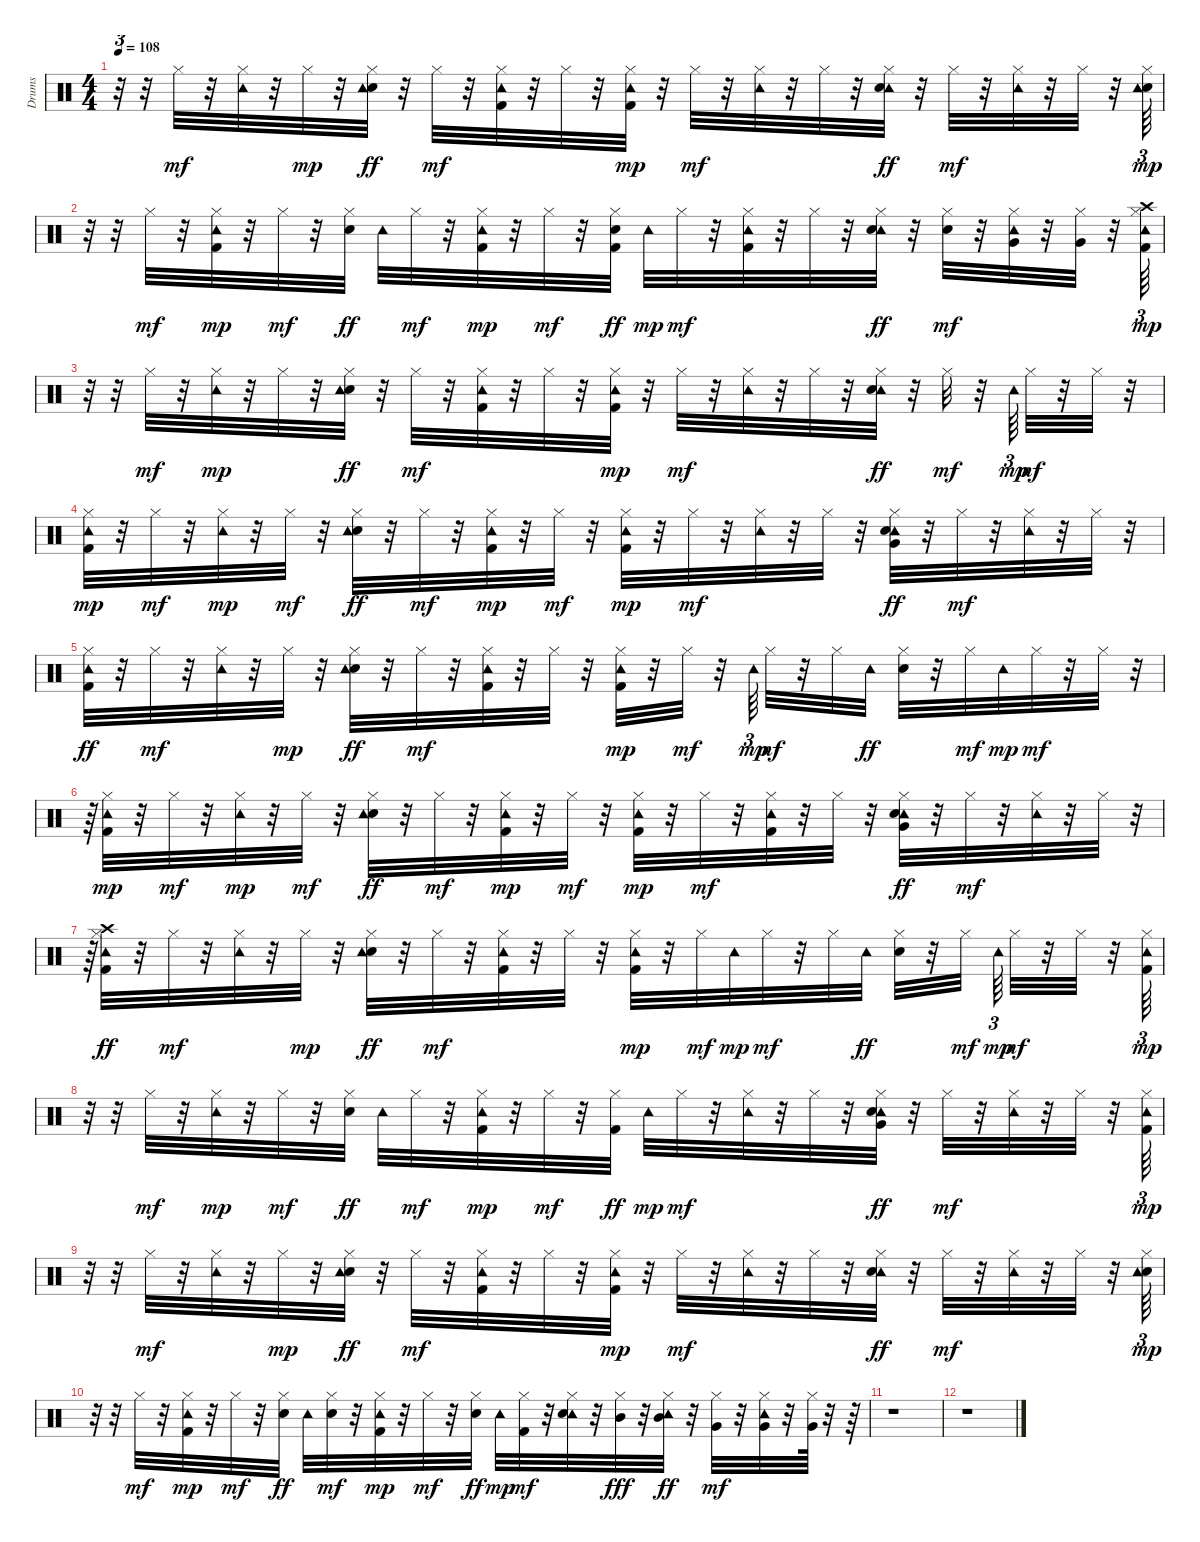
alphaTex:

\track ("Drums               " "Drums     ") {instrument percussion}
\staff {score}
\articulation defaults
\ts (4 4)
\tempo 108
\clef neutral
\ks c
r.32{tu (3 2) dy mp} r.32 "Hi-Hat (closed)".32{dy mf} r.32 ("Tambourine (hit)" "Hi-Hat (closed)").32 r.32 "Hi-Hat (closed)".32{dy mp} r.32 ("Snare (hit) 2" "Hi-Hat (closed)" "Tambourine (hit)").32{dy ff} r.32 "Hi-Hat (closed)".32{dy mf} r.32 ("Tambourine (hit)" "Kick (hit) 2" "Hi-Hat (closed)").32 r.32 "Hi-Hat (closed)".32 r.32 ("Kick (hit) 2" "Hi-Hat (closed)" "Tambourine (hit)").32{dy mp} r.32 "Hi-Hat (closed)".32{dy mf} r.32 ("Tambourine (hit)" "Hi-Hat (closed)").32 r.32 "Hi-Hat (closed)".32 r.32 ("Tambourine (hit)" "Snare (hit) 2" "Hi-Hat (closed)").32{dy ff} r.32 "Hi-Hat (closed)".32{dy mf} r.32 ("Tambourine (hit)" "Hi-Hat (closed)").32 r.32 "Hi-Hat (closed)".32 r.32 ("Hi-Hat (closed)" "Snare (hit) 2" "Tambourine (hit)").64{tu (3 2) dy mp} |
r.32{tu (3 2)} r.32 "Hi-Hat (closed)".32{dy mf} r.32 ("Kick (hit) 2" "Hi-Hat (closed)" "Tambourine (hit)").32{dy mp} r.32 "Hi-Hat (closed)".32{dy mf} r.32 ("Snare (hit) 2" "Hi-Hat (closed)").32{dy ff} "Tambourine (hit)".32 "Hi-Hat (closed)".32{dy mf} r.32 ("Kick (hit) 2" "Hi-Hat (closed)" "Tambourine (hit)").32{dy mp} r.32 "Hi-Hat (closed)".32{dy mf} r.32 ("Kick (hit) 2" "Snare (hit) 2" "Hi-Hat (closed)").32{dy ff} "Tambourine (hit)".32{dy mp} "Hi-Hat (closed)".32{dy mf} r.32 ("Tambourine (hit)" "Kick (hit) 2" "Hi-Hat (closed)").32 r.32 "Hi-Hat (closed)".32 r.32 ("Tambourine (hit)" "Snare (hit) 2" "Hi-Hat (closed)").32{dy ff} r.32 ("Snare (hit) 2" "Hi-Hat (closed)").32{dy mf} r.32 ("Tambourine (hit)" "Very Low Tom (hit)" "Hi-Hat (closed)").32 r.32 ("Very Low Tom (hit)" "Hi-Hat (closed)").32 r.32 ("Kick (hit) 2" "Hi-Hat (closed)" "Crash high (hit)" "Tambourine (hit)").64{tu (3 2) dy mp} |
r.32{tu (3 2)} r.32 "Hi-Hat (closed)".32{dy mf} r.32 ("Hi-Hat (closed)" "Tambourine (hit)").32{dy mp} r.32 "Hi-Hat (closed)".32 r.32 ("Snare (hit) 2" "Hi-Hat (closed)" "Tambourine (hit)").32{dy ff} r.32 "Hi-Hat (closed)".32{dy mf} r.32 ("Tambourine (hit)" "Kick (hit) 2" "Hi-Hat (closed)").32 r.32 "Hi-Hat (closed)".32 r.32 ("Kick (hit) 2" "Hi-Hat (closed)" "Tambourine (hit)").32{dy mp} r.32 "Hi-Hat (closed)".32{dy mf} r.32 ("Tambourine (hit)" "Hi-Hat (closed)").32 r.32 "Hi-Hat (closed)".32 r.32 ("Tambourine (hit)" "Snare (hit) 2" "Hi-Hat (closed)").32{dy ff} r.32 "Hi-Hat (closed)".32{dy mf} r.32 "Tambourine (hit)".64{tu (3 2) dy mp} "Hi-Hat (closed)".32{dy mf} r.32 "Hi-Hat (closed)".32 r.32 |
("Kick (hit) 2" "Hi-Hat (closed)" "Tambourine (hit)").32{dy mp} r.32 "Hi-Hat (closed)".32{dy mf} r.32 ("Hi-Hat (closed)" "Tambourine (hit)").32{dy mp} r.32 "Hi-Hat (closed)".32{dy mf} r.32 ("Snare (hit) 2" "Hi-Hat (closed)" "Tambourine (hit)").32{dy ff} r.32 "Hi-Hat (closed)".32{dy mf} r.32 ("Kick (hit) 2" "Hi-Hat (closed)" "Tambourine (hit)").32{dy mp} r.32 "Hi-Hat (closed)".32{dy mf} r.32 ("Hi-Hat (closed)" "Kick (hit) 2" "Tambourine (hit)").32{dy mp} r.32 "Hi-Hat (closed)".32{dy mf} r.32 ("Tambourine (hit)" "Hi-Hat (closed)").32 r.32 "Hi-Hat (closed)".32 r.32 ("Tambourine (hit)" "Snare (hit) 2" "Very Low Tom (hit)" "Hi-Hat (closed)").32{dy ff} r.32 "Hi-Hat (closed)".32{dy mf} r.32 ("Tambourine (hit)" "Hi-Hat (closed)").32 r.32 "Hi-Hat (closed)".32 r.32 |
("Kick (hit) 2" "Tambourine (hit)" "Hi-Hat (closed)").32{dy ff} r.32 "Hi-Hat (closed)".32{dy mf} r.32 ("Tambourine (hit)" "Hi-Hat (closed)").32 r.32 "Hi-Hat (closed)".32{dy mp} r.32 ("Snare (hit) 2" "Hi-Hat (closed)" "Tambourine (hit)").32{dy ff} r.32 "Hi-Hat (closed)".32{dy mf} r.32 ("Tambourine (hit)" "Kick (hit) 2" "Hi-Hat (closed)").32 r.32 "Hi-Hat (closed)".32 r.32 ("Kick (hit) 2" "Hi-Hat (closed)" "Tambourine (hit)").32{dy mp} r.32 "Hi-Hat (closed)".32{dy mf} r.32 "Tambourine (hit)".64{tu (3 2) dy mp} "Hi-Hat (closed)".32{dy mf} r.32 "Hi-Hat (closed)".32 "Tambourine (hit)".32{dy ff} ("Snare (hit) 2" "Hi-Hat (closed)").32 r.32 "Hi-Hat (closed)".32{dy mf} "Tambourine (hit)".32{dy mp} "Hi-Hat (closed)".32{dy mf} r.32 "Hi-Hat (closed)".32 r.32{tu (3 2)} |
r.64{tu (3 2)} ("Kick (hit) 2" "Hi-Hat (closed)" "Tambourine (hit)").32{dy mp} r.32 "Hi-Hat (closed)".32{dy mf} r.32 ("Hi-Hat (closed)" "Tambourine (hit)").32{dy mp} r.32 "Hi-Hat (closed)".32{dy mf} r.32 ("Snare (hit) 2" "Hi-Hat (closed)" "Tambourine (hit)").32{dy ff} r.32 "Hi-Hat (closed)".32{dy mf} r.32 ("Kick (hit) 2" "Hi-Hat (closed)" "Tambourine (hit)").32{dy mp} r.32 "Hi-Hat (closed)".32{dy mf} r.32 ("Kick (hit) 2" "Hi-Hat (closed)" "Tambourine (hit)").32{dy mp} r.32 "Hi-Hat (closed)".32{dy mf} r.32 ("Tambourine (hit)" "Kick (hit) 2" "Hi-Hat (closed)").32 r.32 "Hi-Hat (closed)".32 r.32 ("Tambourine (hit)" "Snare (hit) 2" "Very Low Tom (hit)" "Hi-Hat (closed)").32{dy ff} r.32 "Hi-Hat (closed)".32{dy mf} r.32 ("Tambourine (hit)" "Hi-Hat (closed)").32 r.32 "Hi-Hat (closed)".32 r.32{tu (3 2)} |
r.64{tu (3 2)} ("Kick (hit) 2" "Crash high (hit)" "Tambourine (hit)" "Hi-Hat (closed)").32{dy ff} r.32 "Hi-Hat (closed)".32{dy mf} r.32 ("Tambourine (hit)" "Hi-Hat (closed)").32 r.32 "Hi-Hat (closed)".32{dy mp} r.32 ("Hi-Hat (closed)" "Snare (hit) 2" "Tambourine (hit)").32{dy ff} r.32 "Hi-Hat (closed)".32{dy mf} r.32 ("Tambourine (hit)" "Kick (hit) 2" "Hi-Hat (closed)").32 r.32 "Hi-Hat (closed)".32 r.32 ("Kick (hit) 2" "Hi-Hat (closed)" "Tambourine (hit)").32{dy mp} r.32 "Hi-Hat (closed)".32{dy mf} "Tambourine (hit)".32{dy mp} "Hi-Hat (closed)".32{dy mf} r.32 "Hi-Hat (closed)".32 "Tambourine (hit)".32{dy ff} ("Snare (hit) 2" "Hi-Hat (closed)").32 r.32 "Hi-Hat (closed)".32{dy mf beam splitsecondary} "Tambourine (hit)".64{tu (3 2) dy mp} "Hi-Hat (closed)".32{dy mf} r.32 "Hi-Hat (closed)".32 r.32 ("Kick (hit) 2" "Hi-Hat (closed)" "Tambourine (hit)").64{tu (3 2) dy mp} |
r.32{tu (3 2)} r.32 "Hi-Hat (closed)".32{dy mf} r.32 ("Hi-Hat (closed)" "Tambourine (hit)").32{dy mp} r.32 "Hi-Hat (closed)".32{dy mf} r.32 ("Snare (hit) 2" "Hi-Hat (closed)").32{dy ff} "Tambourine (hit)".32 "Hi-Hat (closed)".32{dy mf} r.32 ("Kick (hit) 2" "Hi-Hat (closed)" "Tambourine (hit)").32{dy mp} r.32 "Hi-Hat (closed)".32{dy mf} r.32 ("Kick (hit) 2" "Hi-Hat (closed)").32{dy ff} "Tambourine (hit)".32{dy mp} "Hi-Hat (closed)".32{dy mf} r.32 ("Tambourine (hit)" "Hi-Hat (closed)").32 r.32 "Hi-Hat (closed)".32 r.32 ("Tambourine (hit)" "Snare (hit) 2" "Very Low Tom (hit)" "Hi-Hat (closed)").32{dy ff} r.32 "Hi-Hat (closed)".32{dy mf} r.32 ("Tambourine (hit)" "Hi-Hat (closed)").32 r.32 "Hi-Hat (closed)".32 r.32 ("Kick (hit) 2" "Hi-Hat (closed)" "Tambourine (hit)").64{tu (3 2) dy mp} |
r.32{tu (3 2)} r.32 "Hi-Hat (closed)".32{dy mf} r.32 ("Tambourine (hit)" "Hi-Hat (closed)").32 r.32 "Hi-Hat (closed)".32{dy mp} r.32 ("Snare (hit) 2" "Hi-Hat (closed)" "Tambourine (hit)").32{dy ff} r.32 "Hi-Hat (closed)".32{dy mf} r.32 ("Tambourine (hit)" "Kick (hit) 2" "Hi-Hat (closed)").32 r.32 "Hi-Hat (closed)".32 r.32 ("Kick (hit) 2" "Hi-Hat (closed)" "Tambourine (hit)").32{dy mp} r.32 "Hi-Hat (closed)".32{dy mf} r.32 ("Tambourine (hit)" "Hi-Hat (closed)").32 r.32 "Hi-Hat (closed)".32 r.32 ("Tambourine (hit)" "Snare (hit) 2" "Hi-Hat (closed)").32{dy ff} r.32 "Hi-Hat (closed)".32{dy mf} r.32 ("Tambourine (hit)" "Hi-Hat (closed)").32 r.32 "Hi-Hat (closed)".32 r.32 ("Hi-Hat (closed)" "Snare (hit) 2" "Tambourine (hit)").64{tu (3 2) dy mp} |
r.32{tu (3 2)} r.32 "Hi-Hat (closed)".32{dy mf} r.32 ("Kick (hit) 2" "Hi-Hat (closed)" "Tambourine (hit)").32{dy mp} r.32 "Hi-Hat (closed)".32{dy mf} r.32 ("Snare (hit) 2" "Hi-Hat (closed)").32{dy ff} "Tambourine (hit)".32 ("Snare (hit) 2" "Hi-Hat (closed)").32{dy mf} r.32 ("Kick (hit) 2" "Hi-Hat (closed)" "Tambourine (hit)").32{dy mp} r.32 "Hi-Hat (closed)".32{dy mf} r.32 ("Snare (hit) 2" "Hi-Hat (closed)").32{dy ff} "Tambourine (hit)".32{dy mp} ("Kick (hit) 2" "Hi-Hat (closed)").32{dy mf} r.32 ("Tambourine (hit)" "Snare (hit) 2" "Hi-Hat (closed)").32 r.32 ("Hi-Hat (closed)" "Mid Tom (hit)").32{dy fff} r.32 ("Tambourine (hit)" "Mid Tom (hit)" "Hi-Hat (closed)").32{dy ff} r.32 ("Very Low Tom (hit)" "Hi-Hat (closed)").32{dy mf} r.32 ("Tambourine (hit)" "Very Low Tom (hit)" "Hi-Hat (closed)").32 r.32 ("Very Low Tom (hit)" "Hi-Hat (closed)").64 r.32 r.64 |
r.1 |
r.1
